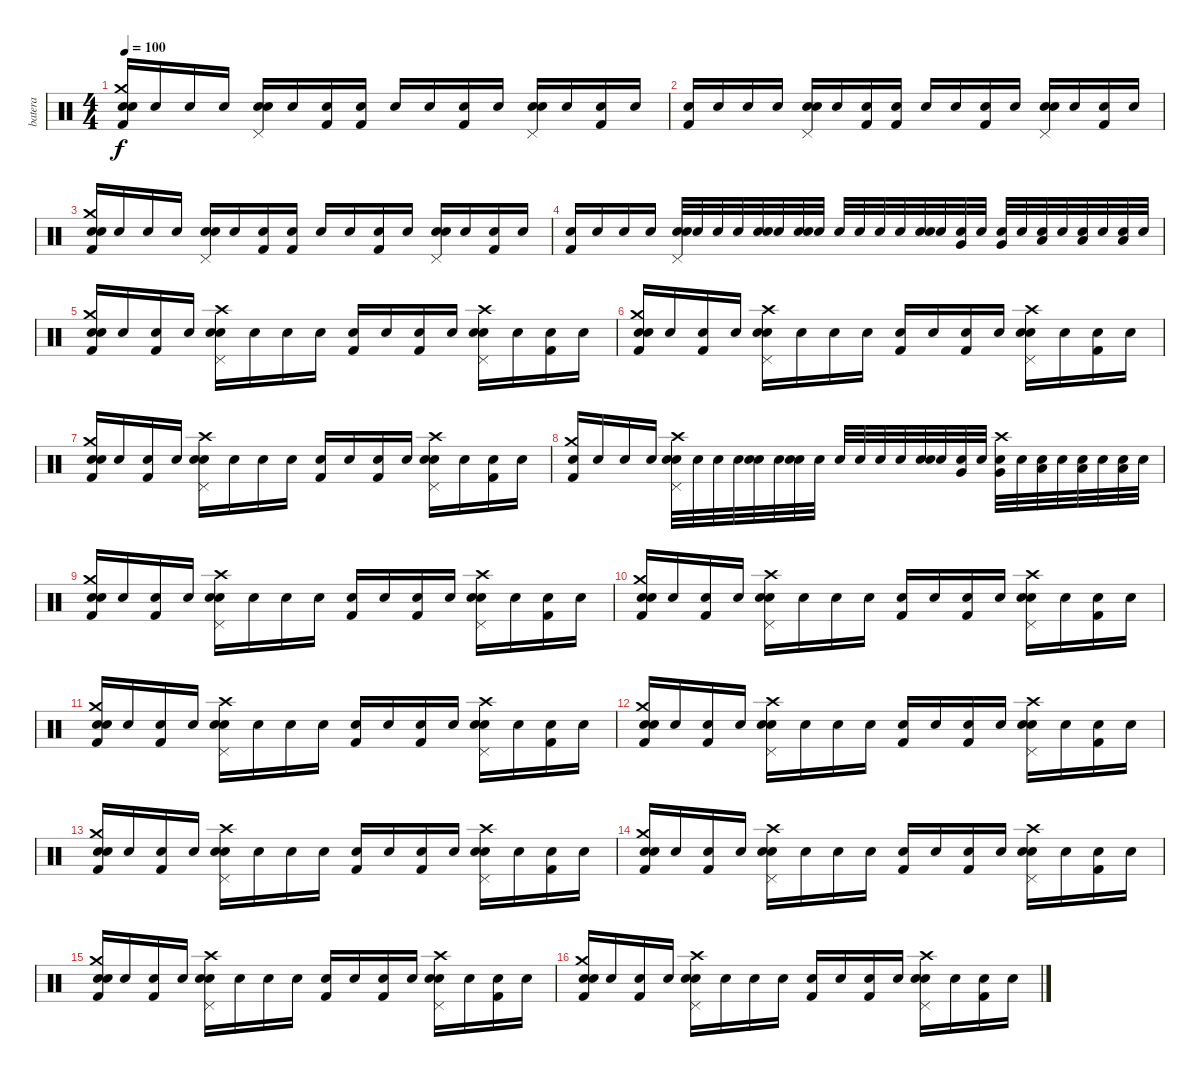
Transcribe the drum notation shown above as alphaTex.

\track ("batera" "batera") {instrument percussion}
\staff {score}
\articulation defaults
\ts (4 4)
\tempo 100
\clef neutral
\ks c
("Snare (hit)" "Crash medium (hit)" "Kick (hit) 2" "Snare (hit) 2").16{dy f} "Snare (hit)".16 "Snare (hit)".16 "Snare (hit)".16 ("Snare (hit)" "Pedal Hi-Hat (hit)" "Snare (hit) 2").16 "Snare (hit)".16 ("Snare (hit)" "Kick (hit) 2").16 ("Snare (hit)" "Kick (hit) 2").16 "Snare (hit)".16 "Snare (hit)".16 ("Snare (hit)" "Kick (hit) 2").16 "Snare (hit)".16 ("Snare (hit)" "Pedal Hi-Hat (hit)" "Snare (hit) 2").16 "Snare (hit)".16 ("Snare (hit)" "Kick (hit) 2").16 "Snare (hit)".16 |
("Snare (hit)" "Kick (hit) 2").16 "Snare (hit)".16 "Snare (hit)".16 "Snare (hit)".16 ("Snare (hit)" "Pedal Hi-Hat (hit)" "Snare (hit) 2").16 "Snare (hit)".16 ("Snare (hit)" "Kick (hit) 2").16 ("Snare (hit)" "Kick (hit) 2").16 "Snare (hit)".16 "Snare (hit)".16 ("Snare (hit)" "Kick (hit) 2").16 "Snare (hit)".16 ("Snare (hit)" "Pedal Hi-Hat (hit)" "Snare (hit) 2").16 "Snare (hit)".16 ("Snare (hit)" "Kick (hit) 2").16 "Snare (hit)".16 |
("Snare (hit)" "Crash medium (hit)" "Kick (hit) 2" "Snare (hit) 2").16 "Snare (hit)".16 "Snare (hit)".16 "Snare (hit)".16 ("Snare (hit)" "Pedal Hi-Hat (hit)" "Snare (hit) 2").16 "Snare (hit)".16 ("Snare (hit)" "Kick (hit) 2").16 ("Snare (hit)" "Kick (hit) 2").16 "Snare (hit)".16 "Snare (hit)".16 ("Snare (hit)" "Kick (hit) 2").16 "Snare (hit)".16 ("Snare (hit)" "Pedal Hi-Hat (hit)" "Snare (hit) 2").16 "Snare (hit)".16 ("Snare (hit)" "Kick (hit) 2").16 "Snare (hit)".16 |
("Snare (hit)" "Kick (hit) 2").16 "Snare (hit)".16 "Snare (hit)".16 "Snare (hit)".16 ("Snare (hit)" "Pedal Hi-Hat (hit)" "Snare (hit) 2").32 "Snare (hit)".32 "Snare (hit)".32 "Snare (hit)".32 ("Snare (hit)" "Snare (hit) 2").32 "Snare (hit)".32 ("Snare (hit)" "Snare (hit) 2").32 "Snare (hit)".32 "Snare (hit)".32 "Snare (hit)".32 "Snare (hit)".32 "Snare (hit)".32 ("Snare (hit)" "Electric Snare (hit)").32 "Snare (hit)".32 ("Snare (hit)" "Very Low Tom (hit)").32 "Snare (hit)".32 ("Snare (hit)" "Very Low Tom (hit)").32 "Snare (hit)".32 ("Snare (hit)" "Low Tom (hit)").32 "Snare (hit)".32 ("Snare (hit)" "Low Tom (hit)").32 "Snare (hit)".32 ("Snare (hit)" "Low Floor Tom (hit)").32 "Snare (hit)".32 |
("Snare (hit)" "Crash medium (hit)" "Kick (hit) 2" "Snare (hit) 2").16 "Snare (hit)".16 ("Snare (hit)" "Kick (hit) 2").16 "Snare (hit)".16 ("Snare (hit)" "Crash high (hit)" "Pedal Hi-Hat (hit)" "Snare (hit) 2").16 "Snare (hit)".16 "Snare (hit)".16 "Snare (hit)".16 ("Snare (hit)" "Kick (hit) 2").16 "Snare (hit)".16 ("Snare (hit)" "Kick (hit) 2").16 "Snare (hit)".16 ("Snare (hit)" "Crash high (hit)" "Pedal Hi-Hat (hit)" "Snare (hit) 2").16 "Snare (hit)".16 ("Snare (hit)" "Kick (hit) 2").16 "Snare (hit)".16 |
("Snare (hit)" "Crash medium (hit)" "Kick (hit) 2" "Snare (hit) 2").16 "Snare (hit)".16 ("Snare (hit)" "Kick (hit) 2").16 "Snare (hit)".16 ("Snare (hit)" "Crash high (hit)" "Pedal Hi-Hat (hit)" "Snare (hit) 2").16 "Snare (hit)".16 "Snare (hit)".16 "Snare (hit)".16 ("Snare (hit)" "Kick (hit) 2").16 "Snare (hit)".16 ("Snare (hit)" "Kick (hit) 2").16 "Snare (hit)".16 ("Snare (hit)" "Crash high (hit)" "Pedal Hi-Hat (hit)" "Snare (hit) 2").16 "Snare (hit)".16 ("Snare (hit)" "Kick (hit) 2").16 "Snare (hit)".16 |
("Snare (hit)" "Crash medium (hit)" "Kick (hit) 2" "Snare (hit) 2").16 "Snare (hit)".16 ("Snare (hit)" "Kick (hit) 2").16 "Snare (hit)".16 ("Snare (hit)" "Crash high (hit)" "Pedal Hi-Hat (hit)" "Snare (hit) 2").16 "Snare (hit)".16 "Snare (hit)".16 "Snare (hit)".16 ("Snare (hit)" "Kick (hit) 2").16 "Snare (hit)".16 ("Snare (hit)" "Kick (hit) 2").16 "Snare (hit)".16 ("Snare (hit)" "Crash high (hit)" "Pedal Hi-Hat (hit)" "Snare (hit) 2").16 "Snare (hit)".16 ("Snare (hit)" "Kick (hit) 2").16 "Snare (hit)".16 |
("Snare (hit)" "Crash medium (hit)" "Kick (hit) 2").16 "Snare (hit)".16 "Snare (hit)".16 "Snare (hit)".16 ("Snare (hit)" "Crash high (hit)" "Pedal Hi-Hat (hit)" "Snare (hit) 2").32 "Snare (hit)".32 "Snare (hit)".32 "Snare (hit)".32 ("Snare (hit)" "Snare (hit) 2").32 "Snare (hit)".32 ("Snare (hit)" "Snare (hit) 2").32 "Snare (hit)".32 "Snare (hit)".32 "Snare (hit)".32 "Snare (hit)".32 "Snare (hit)".32 ("Snare (hit)" "Electric Snare (hit)").32 "Snare (hit)".32 ("Snare (hit)" "Very Low Tom (hit)").32 "Snare (hit)".32 ("Snare (hit)" "Crash high (hit)" "Very Low Tom (hit)").32 "Snare (hit)".32 ("Snare (hit)" "Low Tom (hit)").32 "Snare (hit)".32 ("Snare (hit)" "Low Tom (hit)").32 "Snare (hit)".32 ("Snare (hit)" "Low Floor Tom (hit)").32 "Snare (hit)".32 |
("Snare (hit)" "Crash medium (hit)" "Kick (hit) 2" "Snare (hit) 2").16 "Snare (hit)".16 ("Snare (hit)" "Kick (hit) 2").16 "Snare (hit)".16 ("Snare (hit)" "Crash high (hit)" "Pedal Hi-Hat (hit)" "Snare (hit) 2").16 "Snare (hit)".16 "Snare (hit)".16 "Snare (hit)".16 ("Snare (hit)" "Kick (hit) 2").16 "Snare (hit)".16 ("Snare (hit)" "Kick (hit) 2").16 "Snare (hit)".16 ("Snare (hit)" "Crash high (hit)" "Pedal Hi-Hat (hit)" "Snare (hit) 2").16 "Snare (hit)".16 ("Snare (hit)" "Kick (hit) 2").16 "Snare (hit)".16 |
("Snare (hit)" "Crash medium (hit)" "Kick (hit) 2" "Snare (hit) 2").16 "Snare (hit)".16 ("Snare (hit)" "Kick (hit) 2").16 "Snare (hit)".16 ("Snare (hit)" "Crash high (hit)" "Pedal Hi-Hat (hit)" "Snare (hit) 2").16 "Snare (hit)".16 "Snare (hit)".16 "Snare (hit)".16 ("Snare (hit)" "Kick (hit) 2").16 "Snare (hit)".16 ("Snare (hit)" "Kick (hit) 2").16 "Snare (hit)".16 ("Snare (hit)" "Crash high (hit)" "Pedal Hi-Hat (hit)" "Snare (hit) 2").16 "Snare (hit)".16 ("Snare (hit)" "Kick (hit) 2").16 "Snare (hit)".16 |
("Snare (hit)" "Crash medium (hit)" "Kick (hit) 2" "Snare (hit) 2").16 "Snare (hit)".16 ("Snare (hit)" "Kick (hit) 2").16 "Snare (hit)".16 ("Snare (hit)" "Crash high (hit)" "Pedal Hi-Hat (hit)" "Snare (hit) 2").16 "Snare (hit)".16 "Snare (hit)".16 "Snare (hit)".16 ("Snare (hit)" "Kick (hit) 2").16 "Snare (hit)".16 ("Snare (hit)" "Kick (hit) 2").16 "Snare (hit)".16 ("Snare (hit)" "Crash high (hit)" "Pedal Hi-Hat (hit)" "Snare (hit) 2").16 "Snare (hit)".16 ("Snare (hit)" "Kick (hit) 2").16 "Snare (hit)".16 |
("Snare (hit)" "Crash medium (hit)" "Kick (hit) 2" "Snare (hit) 2").16 "Snare (hit)".16 ("Snare (hit)" "Kick (hit) 2").16 "Snare (hit)".16 ("Snare (hit)" "Crash high (hit)" "Pedal Hi-Hat (hit)" "Snare (hit) 2").16 "Snare (hit)".16 "Snare (hit)".16 "Snare (hit)".16 ("Snare (hit)" "Kick (hit) 2").16 "Snare (hit)".16 ("Snare (hit)" "Kick (hit) 2").16 "Snare (hit)".16 ("Snare (hit)" "Crash high (hit)" "Pedal Hi-Hat (hit)" "Snare (hit) 2").16 "Snare (hit)".16 ("Snare (hit)" "Kick (hit) 2").16 "Snare (hit)".16 |
("Snare (hit)" "Crash medium (hit)" "Kick (hit) 2" "Snare (hit) 2").16 "Snare (hit)".16 ("Snare (hit)" "Kick (hit) 2").16 "Snare (hit)".16 ("Snare (hit)" "Crash high (hit)" "Pedal Hi-Hat (hit)" "Snare (hit) 2").16 "Snare (hit)".16 "Snare (hit)".16 "Snare (hit)".16 ("Snare (hit)" "Kick (hit) 2").16 "Snare (hit)".16 ("Snare (hit)" "Kick (hit) 2").16 "Snare (hit)".16 ("Snare (hit)" "Crash high (hit)" "Pedal Hi-Hat (hit)" "Snare (hit) 2").16 "Snare (hit)".16 ("Snare (hit)" "Kick (hit) 2").16 "Snare (hit)".16 |
("Snare (hit)" "Crash medium (hit)" "Kick (hit) 2" "Snare (hit) 2").16 "Snare (hit)".16 ("Snare (hit)" "Kick (hit) 2").16 "Snare (hit)".16 ("Snare (hit)" "Crash high (hit)" "Pedal Hi-Hat (hit)" "Snare (hit) 2").16 "Snare (hit)".16 "Snare (hit)".16 "Snare (hit)".16 ("Snare (hit)" "Kick (hit) 2").16 "Snare (hit)".16 ("Snare (hit)" "Kick (hit) 2").16 "Snare (hit)".16 ("Snare (hit)" "Crash high (hit)" "Pedal Hi-Hat (hit)" "Snare (hit) 2").16 "Snare (hit)".16 ("Snare (hit)" "Kick (hit) 2").16 "Snare (hit)".16 |
("Snare (hit)" "Crash medium (hit)" "Kick (hit) 2" "Snare (hit) 2").16 "Snare (hit)".16 ("Snare (hit)" "Kick (hit) 2").16 "Snare (hit)".16 ("Snare (hit)" "Crash high (hit)" "Pedal Hi-Hat (hit)" "Snare (hit) 2").16 "Snare (hit)".16 "Snare (hit)".16 "Snare (hit)".16 ("Snare (hit)" "Kick (hit) 2").16 "Snare (hit)".16 ("Snare (hit)" "Kick (hit) 2").16 "Snare (hit)".16 ("Snare (hit)" "Crash high (hit)" "Pedal Hi-Hat (hit)" "Snare (hit) 2").16 "Snare (hit)".16 ("Snare (hit)" "Kick (hit) 2").16 "Snare (hit)".16 |
("Snare (hit)" "Crash medium (hit)" "Kick (hit) 2" "Snare (hit) 2").16 "Snare (hit)".16 ("Snare (hit)" "Kick (hit) 2").16 "Snare (hit)".16 ("Snare (hit)" "Crash high (hit)" "Pedal Hi-Hat (hit)" "Snare (hit) 2").16 "Snare (hit)".16 "Snare (hit)".16 "Snare (hit)".16 ("Snare (hit)" "Kick (hit) 2").16 "Snare (hit)".16 ("Snare (hit)" "Kick (hit) 2").16 "Snare (hit)".16 ("Snare (hit)" "Crash high (hit)" "Pedal Hi-Hat (hit)" "Snare (hit) 2").16 "Snare (hit)".16 ("Snare (hit)" "Kick (hit) 2").16 "Snare (hit)".16
